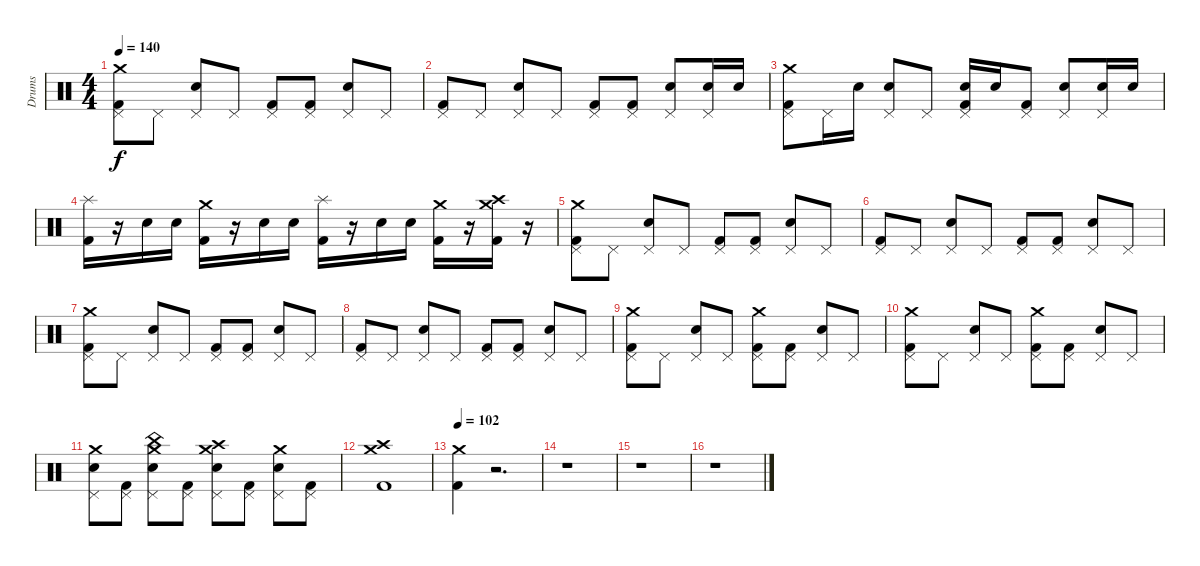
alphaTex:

\track ("Drums" "Drums") {instrument percussion}
\staff {score}
\articulation defaults
\ts (4 4)
\tempo 140
\clef neutral
\ks c
("Crash medium (hit)" "Pedal Hi-Hat (hit)" "Kick (hit) 2").8{dy f} "Pedal Hi-Hat (hit)".8 ("Pedal Hi-Hat (hit)" "Snare (hit) 2").8 "Pedal Hi-Hat (hit)".8 ("Pedal Hi-Hat (hit)" "Kick (hit) 2").8 ("Pedal Hi-Hat (hit)" "Kick (hit) 2").8 ("Pedal Hi-Hat (hit)" "Snare (hit) 2").8 "Pedal Hi-Hat (hit)".8 |
("Pedal Hi-Hat (hit)" "Kick (hit) 2").8 "Pedal Hi-Hat (hit)".8 ("Pedal Hi-Hat (hit)" "Snare (hit) 2").8 "Pedal Hi-Hat (hit)".8 ("Pedal Hi-Hat (hit)" "Kick (hit) 2").8 ("Pedal Hi-Hat (hit)" "Kick (hit) 2").8 ("Pedal Hi-Hat (hit)" "Snare (hit) 2").8 ("Snare (hit) 2" "Pedal Hi-Hat (hit)").16 "Snare (hit) 2".16 |
("Crash medium (hit)" "Pedal Hi-Hat (hit)" "Kick (hit) 2").8 "Pedal Hi-Hat (hit)".16 "Snare (hit) 2".16 ("Pedal Hi-Hat (hit)" "Snare (hit) 2").8 "Pedal Hi-Hat (hit)".8 ("Snare (hit) 2" "Pedal Hi-Hat (hit)" "Kick (hit) 2").16 "Snare (hit) 2".16 ("Pedal Hi-Hat (hit)" "Kick (hit) 2").8 ("Pedal Hi-Hat (hit)" "Snare (hit) 2").8 ("Snare (hit) 2" "Pedal Hi-Hat (hit)").16 "Snare (hit) 2".16 |
("Kick (hit) 2" "Splash (hit)").16 r.16 "Snare (hit) 2".16 "Snare (hit) 2".16 ("Kick (hit) 2" "Crash medium (hit)").16 r.16 "Snare (hit) 2".16 "Snare (hit) 2".16 ("Kick (hit) 2" "Splash (hit)").16 r.16 "Snare (hit) 2".16 "Snare (hit) 2".16 ("Kick (hit) 2" "Crash medium (hit)").16 r.16 ("Crash medium (hit)" "Crash high (hit)" "Kick (hit) 2").16 r.16 |
("Crash medium (hit)" "Pedal Hi-Hat (hit)" "Kick (hit) 2").8 "Pedal Hi-Hat (hit)".8 ("Pedal Hi-Hat (hit)" "Snare (hit) 2").8 "Pedal Hi-Hat (hit)".8 ("Pedal Hi-Hat (hit)" "Kick (hit) 2").8 ("Pedal Hi-Hat (hit)" "Kick (hit) 2").8 ("Pedal Hi-Hat (hit)" "Snare (hit) 2").8 "Pedal Hi-Hat (hit)".8 |
("Pedal Hi-Hat (hit)" "Kick (hit) 2").8 "Pedal Hi-Hat (hit)".8 ("Pedal Hi-Hat (hit)" "Snare (hit) 2").8 "Pedal Hi-Hat (hit)".8 ("Pedal Hi-Hat (hit)" "Kick (hit) 2").8 ("Pedal Hi-Hat (hit)" "Kick (hit) 2").8 ("Pedal Hi-Hat (hit)" "Snare (hit) 2").8 "Pedal Hi-Hat (hit)".8 |
("Crash medium (hit)" "Pedal Hi-Hat (hit)" "Kick (hit) 2").8 "Pedal Hi-Hat (hit)".8 ("Pedal Hi-Hat (hit)" "Snare (hit) 2").8 "Pedal Hi-Hat (hit)".8 ("Pedal Hi-Hat (hit)" "Kick (hit) 2").8 ("Pedal Hi-Hat (hit)" "Kick (hit) 2").8 ("Pedal Hi-Hat (hit)" "Snare (hit) 2").8 "Pedal Hi-Hat (hit)".8 |
("Pedal Hi-Hat (hit)" "Kick (hit) 2").8 "Pedal Hi-Hat (hit)".8 ("Pedal Hi-Hat (hit)" "Snare (hit) 2").8 "Pedal Hi-Hat (hit)".8 ("Pedal Hi-Hat (hit)" "Kick (hit) 2").8 ("Pedal Hi-Hat (hit)" "Kick (hit) 2").8 ("Pedal Hi-Hat (hit)" "Snare (hit) 2").8 "Pedal Hi-Hat (hit)".8 |
("Crash medium (hit)" "Pedal Hi-Hat (hit)" "Kick (hit) 2").8 "Pedal Hi-Hat (hit)".8 ("Pedal Hi-Hat (hit)" "Snare (hit) 2").8 "Pedal Hi-Hat (hit)".8 ("Crash medium (hit)" "Pedal Hi-Hat (hit)" "Kick (hit) 2").8 ("Pedal Hi-Hat (hit)" "Kick (hit) 2").8 ("Pedal Hi-Hat (hit)" "Snare (hit) 2").8 "Pedal Hi-Hat (hit)".8 |
("Crash medium (hit)" "Pedal Hi-Hat (hit)" "Kick (hit) 2").8 "Pedal Hi-Hat (hit)".8 ("Pedal Hi-Hat (hit)" "Snare (hit) 2").8 "Pedal Hi-Hat (hit)".8 ("Crash medium (hit)" "Pedal Hi-Hat (hit)" "Kick (hit) 2").8 ("Pedal Hi-Hat (hit)" "Kick (hit) 2").8 ("Pedal Hi-Hat (hit)" "Snare (hit) 2").8 "Pedal Hi-Hat (hit)".8 |
("Crash medium (hit)" "Electric Snare (hit)" "Pedal Hi-Hat (hit)").8 ("Kick (hit) 2" "Pedal Hi-Hat (hit)").8 ("China (hit)" "Pedal Hi-Hat (hit)" "Crash medium (hit)" "Electric Snare (hit)").8 ("Pedal Hi-Hat (hit)" "Kick (hit) 2").8 ("Crash high (hit)" "Electric Snare (hit)" "Crash medium (hit)" "Pedal Hi-Hat (hit)").8 ("Pedal Hi-Hat (hit)" "Kick (hit) 2").8 ("Crash medium (hit)" "Electric Snare (hit)" "Pedal Hi-Hat (hit)").8 ("Kick (hit) 2" "Pedal Hi-Hat (hit)").8 |
("Crash high (hit)" "Kick (hit) 2" "Crash medium (hit)").1 |
\tempo 102
("Crash medium (hit)" "Kick (hit) 2").4 r.2{d} |
r.1 |
r.1 |
r.1
